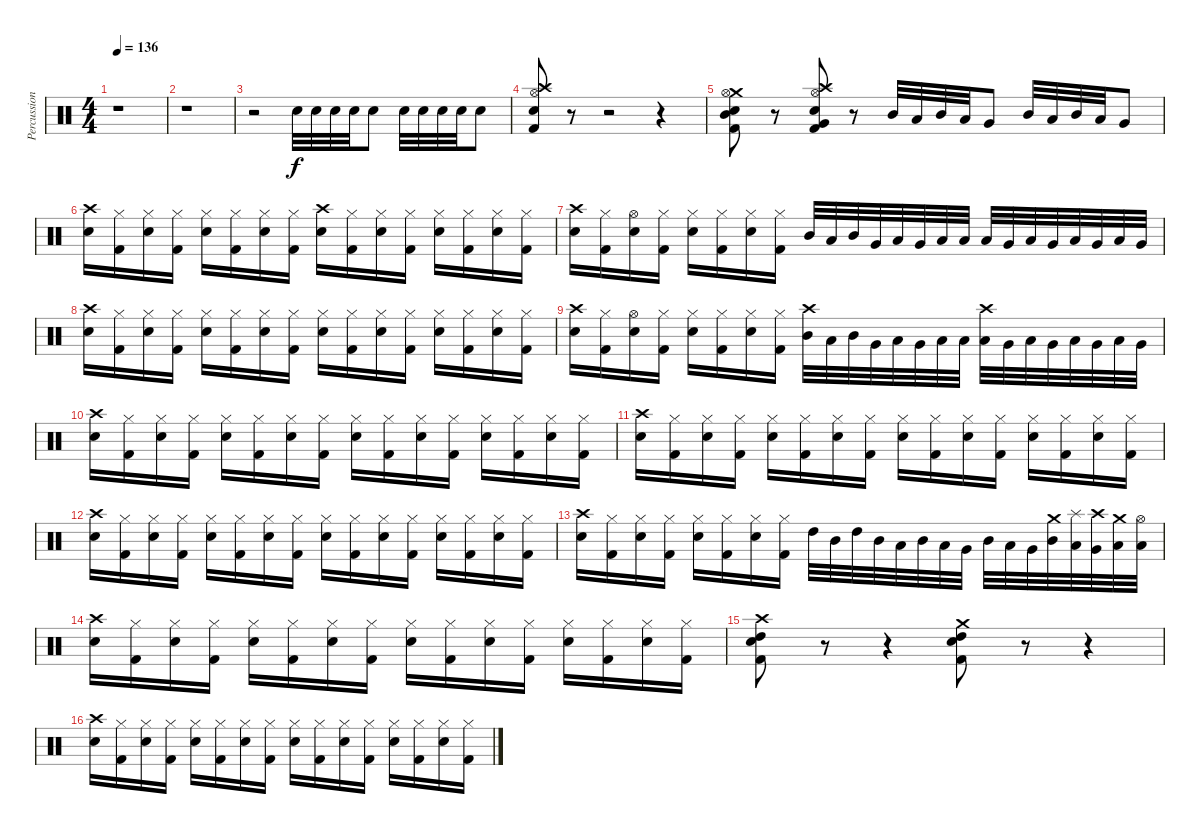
\track ("Percussion" "Percussion") {instrument percussion}
\staff {score}
\articulation defaults
\ts (4 4)
\tempo 136
\clef neutral
\ks c
r.1{dy f} |
r.1 |
r.2 "Snare (hit) 2".32 "Snare (hit) 2".32 "Snare (hit) 2".32 "Snare (hit) 2".32 "Snare (hit) 2".8 "Snare (hit) 2".32 "Snare (hit) 2".32 "Snare (hit) 2".32 "Snare (hit) 2".32 "Snare (hit) 2".8 |
("Crash high (hit)" "Hi-Hat (open)" "Snare (hit) 2" "Kick (hit) 2").8 r.8 r.2 r.4 |
("Crash medium (hit)" "Hi-Hat (open)" "Kick (hit) 2" "Snare (hit) 2" "Mid Tom (hit)").8 r.8 ("Crash high (hit)" "Hi-Hat (open)" "Kick (hit) 2" "Snare (hit) 2" "Very Low Tom (hit)").8 r.8 "Mid Tom (hit)".32 "Low Tom (hit)".32 "Mid Tom (hit)".32 "Low Tom (hit)".32 "Very Low Tom (hit)".8 "Mid Tom (hit)".32 "Low Tom (hit)".32 "Mid Tom (hit)".32 "Low Tom (hit)".32 "Very Low Tom (hit)".8 |
("Crash high (hit)" "Snare (hit) 2").16 ("Hi-Hat (closed)" "Kick (hit) 2").16 ("Hi-Hat (closed)" "Snare (hit) 2").16 ("Hi-Hat (closed)" "Kick (hit) 2").16 ("Hi-Hat (closed)" "Snare (hit) 2").16 ("Hi-Hat (closed)" "Kick (hit) 2").16 ("Hi-Hat (closed)" "Snare (hit) 2").16 ("Hi-Hat (closed)" "Kick (hit) 2").16 ("Crash high (hit)" "Snare (hit) 2").16 ("Hi-Hat (closed)" "Kick (hit) 2").16 ("Hi-Hat (closed)" "Snare (hit) 2").16 ("Hi-Hat (closed)" "Kick (hit) 2").16 ("Hi-Hat (closed)" "Snare (hit) 2").16 ("Hi-Hat (closed)" "Kick (hit) 2").16 ("Hi-Hat (closed)" "Snare (hit) 2").16 ("Hi-Hat (closed)" "Kick (hit) 2").16 |
("Crash high (hit)" "Snare (hit) 2").16 ("Hi-Hat (closed)" "Kick (hit) 2").16 ("Hi-Hat (open)" "Snare (hit) 2").16 ("Hi-Hat (closed)" "Kick (hit) 2").16 ("Hi-Hat (closed)" "Snare (hit) 2").16 ("Hi-Hat (closed)" "Kick (hit) 2").16 ("Hi-Hat (closed)" "Snare (hit) 2").16 ("Hi-Hat (closed)" "Kick (hit) 2").16 "Mid Tom (hit)".32 "Low Tom (hit)".32 "Mid Tom (hit)".32 "Very Low Tom (hit)".32 "Low Tom (hit)".32 "Very Low Tom (hit)".32 "Low Tom (hit)".32 "Low Floor Tom (hit)".32 "Low Tom (hit)".32 "Very Low Tom (hit)".32 "Low Tom (hit)".32 "Very Low Tom (hit)".32 "Low Tom (hit)".32 "Very Low Tom (hit)".32 "Low Floor Tom (hit)".32 "Very Low Tom (hit)".32 |
("Crash high (hit)" "Snare (hit) 2").16 ("Hi-Hat (closed)" "Kick (hit) 2").16 ("Hi-Hat (closed)" "Snare (hit) 2").16 ("Hi-Hat (closed)" "Kick (hit) 2").16 ("Hi-Hat (closed)" "Snare (hit) 2").16 ("Hi-Hat (closed)" "Kick (hit) 2").16 ("Hi-Hat (closed)" "Snare (hit) 2").16 ("Hi-Hat (closed)" "Kick (hit) 2").16 ("Hi-Hat (closed)" "Snare (hit) 2").16 ("Hi-Hat (closed)" "Kick (hit) 2").16 ("Hi-Hat (closed)" "Snare (hit) 2").16 ("Hi-Hat (closed)" "Kick (hit) 2").16 ("Hi-Hat (closed)" "Snare (hit) 2").16 ("Hi-Hat (closed)" "Kick (hit) 2").16 ("Hi-Hat (closed)" "Snare (hit) 2").16 ("Hi-Hat (closed)" "Kick (hit) 2").16 |
("Crash high (hit)" "Snare (hit) 2").16 ("Hi-Hat (closed)" "Kick (hit) 2").16 ("Hi-Hat (open)" "Snare (hit) 2").16 ("Hi-Hat (closed)" "Kick (hit) 2").16 ("Hi-Hat (closed)" "Snare (hit) 2").16 ("Hi-Hat (closed)" "Kick (hit) 2").16 ("Hi-Hat (closed)" "Snare (hit) 2").16 ("Hi-Hat (closed)" "Kick (hit) 2").16 ("Crash high (hit)" "Mid Tom (hit)").32 "Low Tom (hit)".32 "Mid Tom (hit)".32 "Very Low Tom (hit)".32 "Low Tom (hit)".32 "Very Low Tom (hit)".32 "Low Tom (hit)".32 "Low Floor Tom (hit)".32 ("Crash high (hit)" "Low Tom (hit)").32 "Very Low Tom (hit)".32 "Low Tom (hit)".32 "Very Low Tom (hit)".32 "Low Tom (hit)".32 "Very Low Tom (hit)".32 "Low Floor Tom (hit)".32 "Very Low Tom (hit)".32 |
("Crash high (hit)" "Snare (hit) 2").16 ("Hi-Hat (closed)" "Kick (hit) 2").16 ("Hi-Hat (closed)" "Snare (hit) 2").16 ("Hi-Hat (closed)" "Kick (hit) 2").16 ("Hi-Hat (closed)" "Snare (hit) 2").16 ("Hi-Hat (closed)" "Kick (hit) 2").16 ("Hi-Hat (closed)" "Snare (hit) 2").16 ("Hi-Hat (closed)" "Kick (hit) 2").16 ("Hi-Hat (closed)" "Snare (hit) 2").16 ("Hi-Hat (closed)" "Kick (hit) 2").16 ("Hi-Hat (closed)" "Snare (hit) 2").16 ("Hi-Hat (closed)" "Kick (hit) 2").16 ("Hi-Hat (closed)" "Snare (hit) 2").16 ("Hi-Hat (closed)" "Kick (hit) 2").16 ("Hi-Hat (closed)" "Snare (hit) 2").16 ("Hi-Hat (closed)" "Kick (hit) 2").16 |
("Crash high (hit)" "Snare (hit) 2").16 ("Hi-Hat (closed)" "Kick (hit) 2").16 ("Hi-Hat (closed)" "Snare (hit) 2").16 ("Hi-Hat (closed)" "Kick (hit) 2").16 ("Hi-Hat (closed)" "Snare (hit) 2").16 ("Hi-Hat (closed)" "Kick (hit) 2").16 ("Hi-Hat (closed)" "Snare (hit) 2").16 ("Hi-Hat (closed)" "Kick (hit) 2").16 ("Hi-Hat (closed)" "Snare (hit) 2").16 ("Hi-Hat (closed)" "Kick (hit) 2").16 ("Hi-Hat (closed)" "Snare (hit) 2").16 ("Hi-Hat (closed)" "Kick (hit) 2").16 ("Hi-Hat (closed)" "Snare (hit) 2").16 ("Hi-Hat (closed)" "Kick (hit) 2").16 ("Hi-Hat (closed)" "Snare (hit) 2").16 ("Hi-Hat (closed)" "Kick (hit) 2").16 |
("Crash high (hit)" "Snare (hit) 2").16 ("Hi-Hat (closed)" "Kick (hit) 2").16 ("Hi-Hat (closed)" "Snare (hit) 2").16 ("Hi-Hat (closed)" "Kick (hit) 2").16 ("Hi-Hat (closed)" "Snare (hit) 2").16 ("Hi-Hat (closed)" "Kick (hit) 2").16 ("Hi-Hat (closed)" "Snare (hit) 2").16 ("Hi-Hat (closed)" "Kick (hit) 2").16 ("Hi-Hat (closed)" "Snare (hit) 2").16 ("Hi-Hat (closed)" "Kick (hit) 2").16 ("Hi-Hat (closed)" "Snare (hit) 2").16 ("Hi-Hat (closed)" "Kick (hit) 2").16 ("Hi-Hat (closed)" "Snare (hit) 2").16 ("Hi-Hat (closed)" "Kick (hit) 2").16 ("Hi-Hat (closed)" "Snare (hit) 2").16 ("Hi-Hat (closed)" "Kick (hit) 2").16 |
("Crash high (hit)" "Snare (hit) 2").16 ("Hi-Hat (closed)" "Kick (hit) 2").16 ("Hi-Hat (closed)" "Snare (hit) 2").16 ("Hi-Hat (closed)" "Kick (hit) 2").16 ("Hi-Hat (closed)" "Snare (hit) 2").16 ("Hi-Hat (closed)" "Kick (hit) 2").16 ("Hi-Hat (closed)" "Snare (hit) 2").16 ("Hi-Hat (closed)" "Kick (hit) 2").16 "High Tom (hit)".32 "Mid Tom (hit)".32 "High Tom (hit)".32 "Mid Tom (hit)".32 "Low Tom (hit)".32 "Mid Tom (hit)".32 "Low Tom (hit)".32 "Very Low Tom (hit)".32 "Mid Tom (hit)".32 "Low Tom (hit)".32 "Very Low Tom (hit)".32 ("Crash medium (hit)" "Mid Tom (hit)").32 ("Splash (hit)" "Low Tom (hit)").32 ("Crash high (hit)" "Very Low Tom (hit)").32 ("Crash medium (hit)" "Low Tom (hit)").32 ("Hi-Hat (open)" "Low Floor Tom (hit)").32 |
("Crash high (hit)" "Snare (hit) 2").16 ("Hi-Hat (closed)" "Kick (hit) 2").16 ("Hi-Hat (closed)" "Snare (hit) 2").16 ("Hi-Hat (closed)" "Kick (hit) 2").16 ("Hi-Hat (closed)" "Snare (hit) 2").16 ("Hi-Hat (closed)" "Kick (hit) 2").16 ("Hi-Hat (closed)" "Snare (hit) 2").16 ("Hi-Hat (closed)" "Kick (hit) 2").16 ("Hi-Hat (closed)" "Snare (hit) 2").16 ("Hi-Hat (closed)" "Kick (hit) 2").16 ("Hi-Hat (closed)" "Snare (hit) 2").16 ("Hi-Hat (closed)" "Kick (hit) 2").16 ("Hi-Hat (closed)" "Snare (hit) 2").16 ("Hi-Hat (closed)" "Kick (hit) 2").16 ("Hi-Hat (closed)" "Snare (hit) 2").16 ("Hi-Hat (closed)" "Kick (hit) 2").16 |
("Crash high (hit)" "Snare (hit) 2" "Kick (hit) 2" "High Tom (hit)").8 r.8 r.4 ("Crash medium (hit)" "Snare (hit) 2" "Kick (hit) 2" "High Tom (hit)").8 r.8 r.4 |
("Crash high (hit)" "Snare (hit) 2").16 ("Hi-Hat (closed)" "Kick (hit) 2").16 ("Hi-Hat (closed)" "Snare (hit) 2").16 ("Hi-Hat (closed)" "Kick (hit) 2").16 ("Hi-Hat (closed)" "Snare (hit) 2").16 ("Hi-Hat (closed)" "Kick (hit) 2").16 ("Hi-Hat (closed)" "Snare (hit) 2").16 ("Hi-Hat (closed)" "Kick (hit) 2").16 ("Hi-Hat (closed)" "Snare (hit) 2").16 ("Hi-Hat (closed)" "Kick (hit) 2").16 ("Hi-Hat (closed)" "Snare (hit) 2").16 ("Hi-Hat (closed)" "Kick (hit) 2").16 ("Hi-Hat (closed)" "Snare (hit) 2").16 ("Hi-Hat (closed)" "Kick (hit) 2").16 ("Hi-Hat (closed)" "Snare (hit) 2").16 ("Hi-Hat (closed)" "Kick (hit) 2").16
